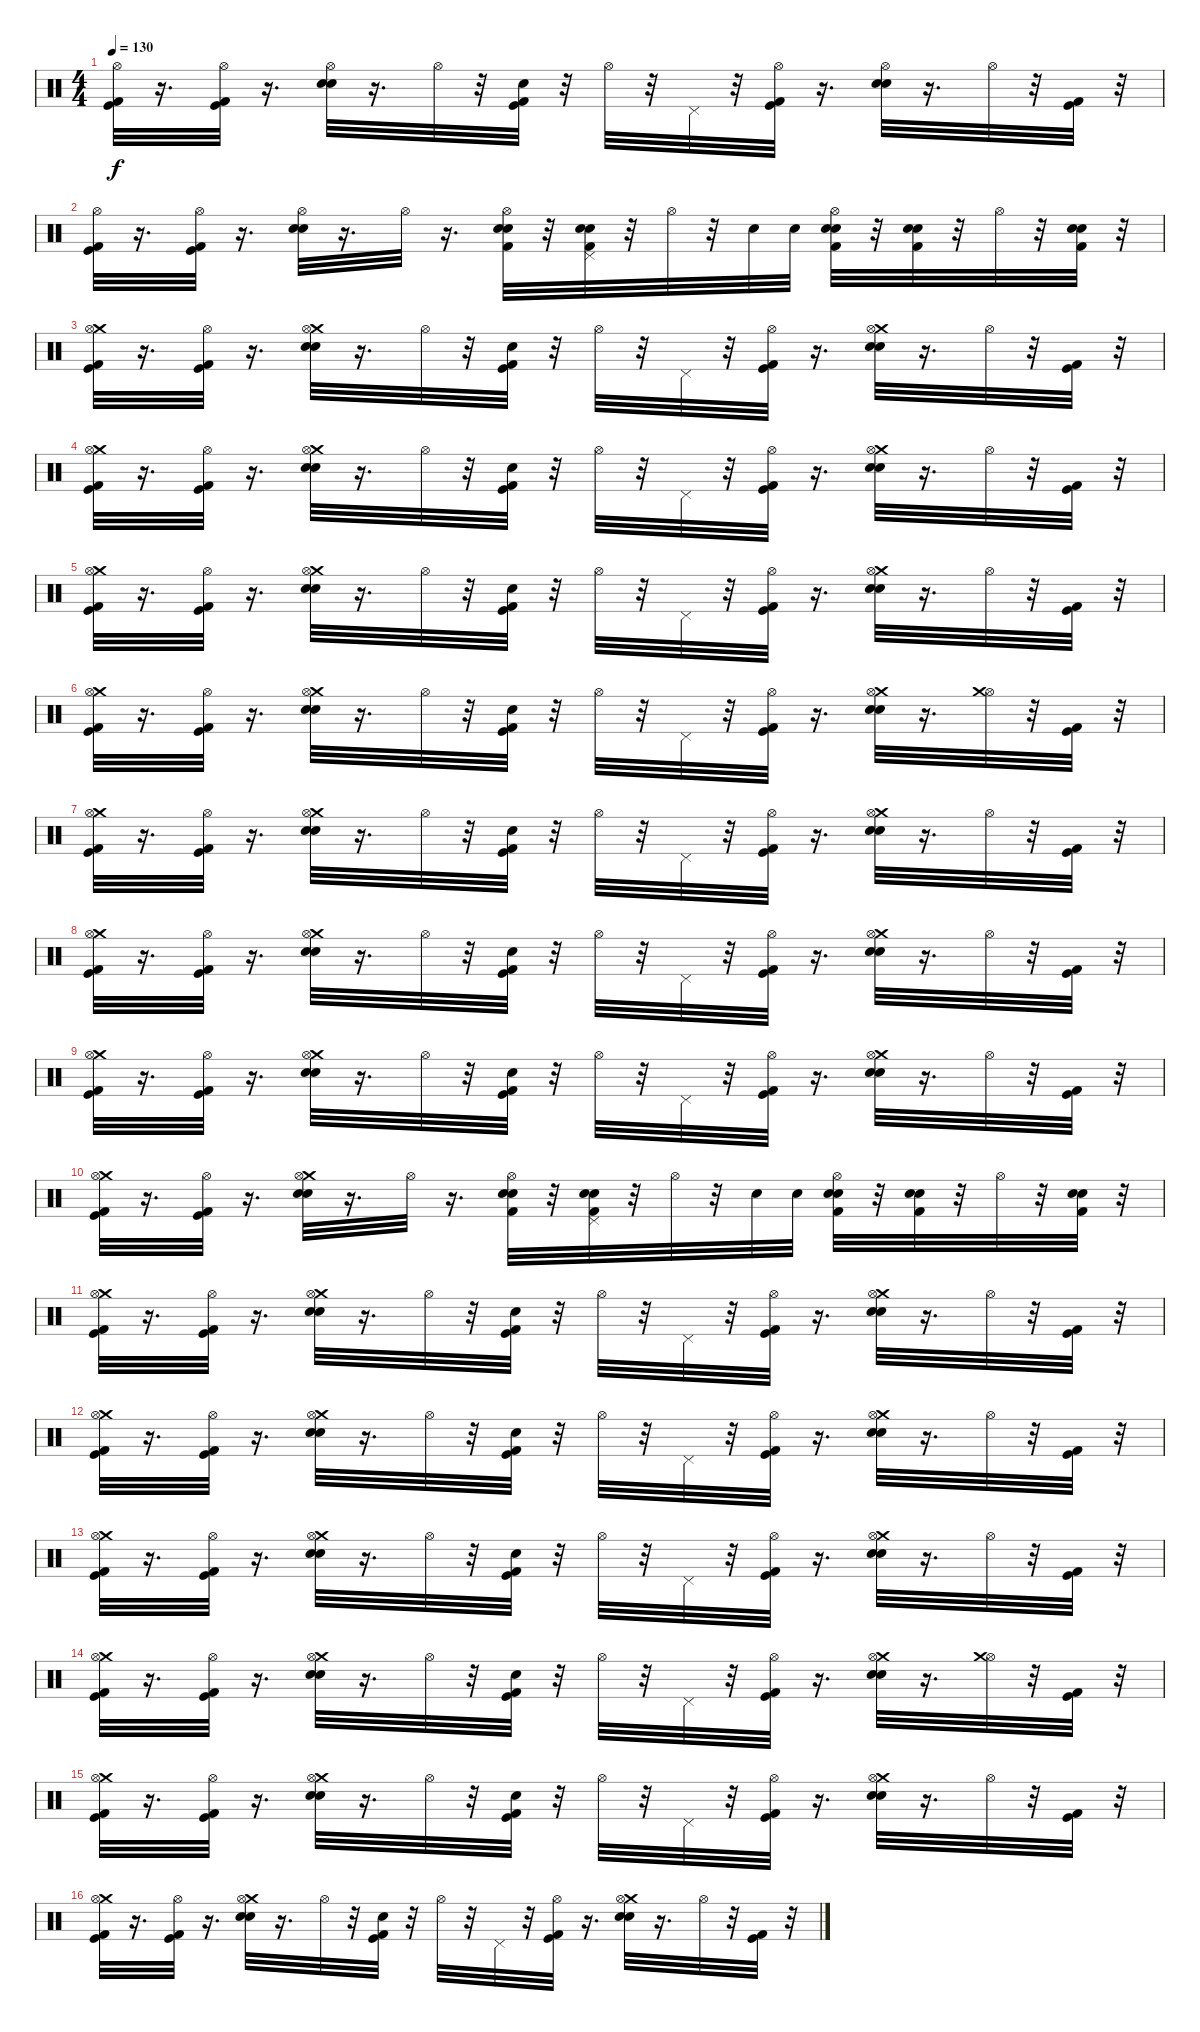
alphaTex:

\track "" {instrument percussion}
\staff {score}
\articulation defaults
\ts (4 4)
\tempo 130
\clef neutral
\ks c
("Kick (hit) 2" "Kick (hit)" "Hi-Hat (open)").32{dy f} r.16{d} ("Kick (hit) 2" "Kick (hit)" "Hi-Hat (open)").32 r.16{d} ("Snare (hit) 2" "Electric Snare (hit)" "Hi-Hat (open)").32 r.16{d} "Hi-Hat (open)".32 r.32 ("Kick (hit) 2" "Kick (hit)" "Electric Snare (hit)").32 r.32 "Hi-Hat (open)".32 r.32 "Pedal Hi-Hat (hit)".32 r.32 ("Kick (hit) 2" "Kick (hit)" "Hi-Hat (open)").32 r.16{d} ("Snare (hit) 2" "Electric Snare (hit)" "Hi-Hat (open)").32 r.16{d} "Hi-Hat (open)".32 r.32 ("Kick (hit) 2" "Kick (hit)").32 r.32 |
("Kick (hit) 2" "Kick (hit)" "Hi-Hat (open)").32 r.16{d} ("Kick (hit) 2" "Kick (hit)" "Hi-Hat (open)").32 r.16{d} ("Snare (hit) 2" "Electric Snare (hit)" "Hi-Hat (open)").32 r.16{d} "Hi-Hat (open)".32 r.16{d} ("Hi-Hat (open)" "Electric Snare (hit)" "Snare (hit) 2" "Kick (hit) 2").32 r.32 ("Electric Snare (hit)" "Snare (hit) 2" "Kick (hit) 2" "Pedal Hi-Hat (hit)").32 r.32 "Hi-Hat (open)".32 r.32 "Electric Snare (hit)".32 "Electric Snare (hit)".32 ("Hi-Hat (open)" "Snare (hit) 2" "Electric Snare (hit)" "Kick (hit) 2").32 r.32 ("Electric Snare (hit)" "Snare (hit) 2" "Kick (hit) 2").32 r.32 "Hi-Hat (open)".32 r.32 ("Electric Snare (hit)" "Snare (hit) 2" "Kick (hit) 2").32 r.32 |
("Kick (hit) 2" "Kick (hit)" "Crash medium (hit)" "Hi-Hat (open)").32 r.16{d} ("Kick (hit) 2" "Kick (hit)" "Hi-Hat (open)").32 r.16{d} ("Snare (hit) 2" "Electric Snare (hit)" "Crash medium (hit)" "Hi-Hat (open)").32 r.16{d} "Hi-Hat (open)".32 r.32 ("Kick (hit) 2" "Kick (hit)" "Electric Snare (hit)").32 r.32 "Hi-Hat (open)".32 r.32 "Pedal Hi-Hat (hit)".32 r.32 ("Kick (hit) 2" "Kick (hit)" "Hi-Hat (open)").32 r.16{d} ("Snare (hit) 2" "Electric Snare (hit)" "Crash medium (hit)" "Hi-Hat (open)").32 r.16{d} "Hi-Hat (open)".32 r.32 ("Kick (hit) 2" "Kick (hit)").32 r.32 |
("Kick (hit) 2" "Kick (hit)" "Crash medium (hit)" "Hi-Hat (open)").32 r.16{d} ("Kick (hit) 2" "Kick (hit)" "Hi-Hat (open)").32 r.16{d} ("Snare (hit) 2" "Electric Snare (hit)" "Crash medium (hit)" "Hi-Hat (open)").32 r.16{d} "Hi-Hat (open)".32 r.32 ("Kick (hit) 2" "Kick (hit)" "Electric Snare (hit)").32 r.32 "Hi-Hat (open)".32 r.32 "Pedal Hi-Hat (hit)".32 r.32 ("Kick (hit) 2" "Kick (hit)" "Hi-Hat (open)").32 r.16{d} ("Snare (hit) 2" "Electric Snare (hit)" "Crash medium (hit)" "Hi-Hat (open)").32 r.16{d} "Hi-Hat (open)".32 r.32 ("Kick (hit) 2" "Kick (hit)").32 r.32 |
("Kick (hit) 2" "Kick (hit)" "Crash medium (hit)" "Hi-Hat (open)").32 r.16{d} ("Kick (hit) 2" "Kick (hit)" "Hi-Hat (open)").32 r.16{d} ("Snare (hit) 2" "Electric Snare (hit)" "Crash medium (hit)" "Hi-Hat (open)").32 r.16{d} "Hi-Hat (open)".32 r.32 ("Kick (hit) 2" "Kick (hit)" "Electric Snare (hit)").32 r.32 "Hi-Hat (open)".32 r.32 "Pedal Hi-Hat (hit)".32 r.32 ("Kick (hit) 2" "Kick (hit)" "Hi-Hat (open)").32 r.16{d} ("Snare (hit) 2" "Electric Snare (hit)" "Crash medium (hit)" "Hi-Hat (open)").32 r.16{d} "Hi-Hat (open)".32 r.32 ("Kick (hit) 2" "Kick (hit)").32 r.32 |
("Kick (hit) 2" "Kick (hit)" "Crash medium (hit)" "Hi-Hat (open)").32 r.16{d} ("Kick (hit) 2" "Kick (hit)" "Hi-Hat (open)").32 r.16{d} ("Snare (hit) 2" "Electric Snare (hit)" "Crash medium (hit)" "Hi-Hat (open)").32 r.16{d} "Hi-Hat (open)".32 r.32 ("Kick (hit) 2" "Kick (hit)" "Electric Snare (hit)").32 r.32 "Hi-Hat (open)".32 r.32 "Pedal Hi-Hat (hit)".32 r.32 ("Kick (hit) 2" "Kick (hit)" "Hi-Hat (open)").32 r.16{d} ("Snare (hit) 2" "Electric Snare (hit)" "Crash medium (hit)" "Hi-Hat (open)").32 r.16{d} ("Hi-Hat (open)" "Crash medium (hit)").32 r.32 ("Kick (hit) 2" "Kick (hit)").32 r.32 |
("Kick (hit) 2" "Kick (hit)" "Crash medium (hit)" "Hi-Hat (open)").32 r.16{d} ("Kick (hit) 2" "Kick (hit)" "Hi-Hat (open)").32 r.16{d} ("Snare (hit) 2" "Electric Snare (hit)" "Crash medium (hit)" "Hi-Hat (open)").32 r.16{d} "Hi-Hat (open)".32 r.32 ("Kick (hit) 2" "Kick (hit)" "Electric Snare (hit)").32 r.32 "Hi-Hat (open)".32 r.32 "Pedal Hi-Hat (hit)".32 r.32 ("Kick (hit) 2" "Kick (hit)" "Hi-Hat (open)").32 r.16{d} ("Snare (hit) 2" "Electric Snare (hit)" "Crash medium (hit)" "Hi-Hat (open)").32 r.16{d} "Hi-Hat (open)".32 r.32 ("Kick (hit) 2" "Kick (hit)").32 r.32 |
("Kick (hit) 2" "Kick (hit)" "Crash medium (hit)" "Hi-Hat (open)").32 r.16{d} ("Kick (hit) 2" "Kick (hit)" "Hi-Hat (open)").32 r.16{d} ("Snare (hit) 2" "Electric Snare (hit)" "Crash medium (hit)" "Hi-Hat (open)").32 r.16{d} "Hi-Hat (open)".32 r.32 ("Kick (hit) 2" "Kick (hit)" "Electric Snare (hit)").32 r.32 "Hi-Hat (open)".32 r.32 "Pedal Hi-Hat (hit)".32 r.32 ("Kick (hit) 2" "Kick (hit)" "Hi-Hat (open)").32 r.16{d} ("Snare (hit) 2" "Electric Snare (hit)" "Crash medium (hit)" "Hi-Hat (open)").32 r.16{d} "Hi-Hat (open)".32 r.32 ("Kick (hit) 2" "Kick (hit)").32 r.32 |
("Kick (hit) 2" "Kick (hit)" "Crash medium (hit)" "Hi-Hat (open)").32 r.16{d} ("Kick (hit) 2" "Kick (hit)" "Hi-Hat (open)").32 r.16{d} ("Snare (hit) 2" "Electric Snare (hit)" "Crash medium (hit)" "Hi-Hat (open)").32 r.16{d} "Hi-Hat (open)".32 r.32 ("Kick (hit) 2" "Kick (hit)" "Electric Snare (hit)").32 r.32 "Hi-Hat (open)".32 r.32 "Pedal Hi-Hat (hit)".32 r.32 ("Kick (hit) 2" "Kick (hit)" "Hi-Hat (open)").32 r.16{d} ("Snare (hit) 2" "Electric Snare (hit)" "Crash medium (hit)" "Hi-Hat (open)").32 r.16{d} "Hi-Hat (open)".32 r.32 ("Kick (hit) 2" "Kick (hit)").32 r.32 |
("Kick (hit) 2" "Kick (hit)" "Crash medium (hit)" "Hi-Hat (open)").32 r.16{d} ("Kick (hit) 2" "Kick (hit)" "Hi-Hat (open)").32 r.16{d} ("Snare (hit) 2" "Electric Snare (hit)" "Crash medium (hit)" "Hi-Hat (open)").32 r.16{d} "Hi-Hat (open)".32 r.16{d} ("Hi-Hat (open)" "Electric Snare (hit)" "Snare (hit) 2" "Kick (hit) 2").32 r.32 ("Electric Snare (hit)" "Snare (hit) 2" "Kick (hit) 2" "Pedal Hi-Hat (hit)").32 r.32 "Hi-Hat (open)".32 r.32 "Electric Snare (hit)".32 "Electric Snare (hit)".32 ("Hi-Hat (open)" "Snare (hit) 2" "Electric Snare (hit)" "Kick (hit) 2").32 r.32 ("Electric Snare (hit)" "Snare (hit) 2" "Kick (hit) 2").32 r.32 "Hi-Hat (open)".32 r.32 ("Electric Snare (hit)" "Snare (hit) 2" "Kick (hit) 2").32 r.32 |
("Kick (hit) 2" "Kick (hit)" "Crash medium (hit)" "Hi-Hat (open)").32 r.16{d} ("Kick (hit) 2" "Kick (hit)" "Hi-Hat (open)").32 r.16{d} ("Snare (hit) 2" "Electric Snare (hit)" "Crash medium (hit)" "Hi-Hat (open)").32 r.16{d} "Hi-Hat (open)".32 r.32 ("Kick (hit) 2" "Kick (hit)" "Electric Snare (hit)").32 r.32 "Hi-Hat (open)".32 r.32 "Pedal Hi-Hat (hit)".32 r.32 ("Kick (hit) 2" "Kick (hit)" "Hi-Hat (open)").32 r.16{d} ("Snare (hit) 2" "Electric Snare (hit)" "Crash medium (hit)" "Hi-Hat (open)").32 r.16{d} "Hi-Hat (open)".32 r.32 ("Kick (hit) 2" "Kick (hit)").32 r.32 |
("Kick (hit) 2" "Kick (hit)" "Crash medium (hit)" "Hi-Hat (open)").32 r.16{d} ("Kick (hit) 2" "Kick (hit)" "Hi-Hat (open)").32 r.16{d} ("Snare (hit) 2" "Electric Snare (hit)" "Crash medium (hit)" "Hi-Hat (open)").32 r.16{d} "Hi-Hat (open)".32 r.32 ("Kick (hit) 2" "Kick (hit)" "Electric Snare (hit)").32 r.32 "Hi-Hat (open)".32 r.32 "Pedal Hi-Hat (hit)".32 r.32 ("Kick (hit) 2" "Kick (hit)" "Hi-Hat (open)").32 r.16{d} ("Snare (hit) 2" "Electric Snare (hit)" "Crash medium (hit)" "Hi-Hat (open)").32 r.16{d} "Hi-Hat (open)".32 r.32 ("Kick (hit) 2" "Kick (hit)").32 r.32 |
("Kick (hit) 2" "Kick (hit)" "Crash medium (hit)" "Hi-Hat (open)").32 r.16{d} ("Kick (hit) 2" "Kick (hit)" "Hi-Hat (open)").32 r.16{d} ("Snare (hit) 2" "Electric Snare (hit)" "Crash medium (hit)" "Hi-Hat (open)").32 r.16{d} "Hi-Hat (open)".32 r.32 ("Kick (hit) 2" "Kick (hit)" "Electric Snare (hit)").32 r.32 "Hi-Hat (open)".32 r.32 "Pedal Hi-Hat (hit)".32 r.32 ("Kick (hit) 2" "Kick (hit)" "Hi-Hat (open)").32 r.16{d} ("Snare (hit) 2" "Electric Snare (hit)" "Crash medium (hit)" "Hi-Hat (open)").32 r.16{d} "Hi-Hat (open)".32 r.32 ("Kick (hit) 2" "Kick (hit)").32 r.32 |
("Kick (hit) 2" "Kick (hit)" "Crash medium (hit)" "Hi-Hat (open)").32 r.16{d} ("Kick (hit) 2" "Kick (hit)" "Hi-Hat (open)").32 r.16{d} ("Snare (hit) 2" "Electric Snare (hit)" "Crash medium (hit)" "Hi-Hat (open)").32 r.16{d} "Hi-Hat (open)".32 r.32 ("Kick (hit) 2" "Kick (hit)" "Electric Snare (hit)").32 r.32 "Hi-Hat (open)".32 r.32 "Pedal Hi-Hat (hit)".32 r.32 ("Kick (hit) 2" "Kick (hit)" "Hi-Hat (open)").32 r.16{d} ("Snare (hit) 2" "Electric Snare (hit)" "Crash medium (hit)" "Hi-Hat (open)").32 r.16{d} ("Hi-Hat (open)" "Crash medium (hit)").32 r.32 ("Kick (hit) 2" "Kick (hit)").32 r.32 |
("Kick (hit) 2" "Kick (hit)" "Crash medium (hit)" "Hi-Hat (open)").32 r.16{d} ("Kick (hit) 2" "Kick (hit)" "Hi-Hat (open)").32 r.16{d} ("Snare (hit) 2" "Electric Snare (hit)" "Crash medium (hit)" "Hi-Hat (open)").32 r.16{d} "Hi-Hat (open)".32 r.32 ("Kick (hit) 2" "Kick (hit)" "Electric Snare (hit)").32 r.32 "Hi-Hat (open)".32 r.32 "Pedal Hi-Hat (hit)".32 r.32 ("Kick (hit) 2" "Kick (hit)" "Hi-Hat (open)").32 r.16{d} ("Snare (hit) 2" "Electric Snare (hit)" "Crash medium (hit)" "Hi-Hat (open)").32 r.16{d} "Hi-Hat (open)".32 r.32 ("Kick (hit) 2" "Kick (hit)").32 r.32 |
("Kick (hit) 2" "Kick (hit)" "Crash medium (hit)" "Hi-Hat (open)").32 r.16{d} ("Kick (hit) 2" "Kick (hit)" "Hi-Hat (open)").32 r.16{d} ("Snare (hit) 2" "Electric Snare (hit)" "Crash medium (hit)" "Hi-Hat (open)").32 r.16{d} "Hi-Hat (open)".32 r.32 ("Kick (hit) 2" "Kick (hit)" "Electric Snare (hit)").32 r.32 "Hi-Hat (open)".32 r.32 "Pedal Hi-Hat (hit)".32 r.32 ("Kick (hit) 2" "Kick (hit)" "Hi-Hat (open)").32 r.16{d} ("Snare (hit) 2" "Electric Snare (hit)" "Crash medium (hit)" "Hi-Hat (open)").32 r.16{d} "Hi-Hat (open)".32 r.32 ("Kick (hit) 2" "Kick (hit)").32 r.32
